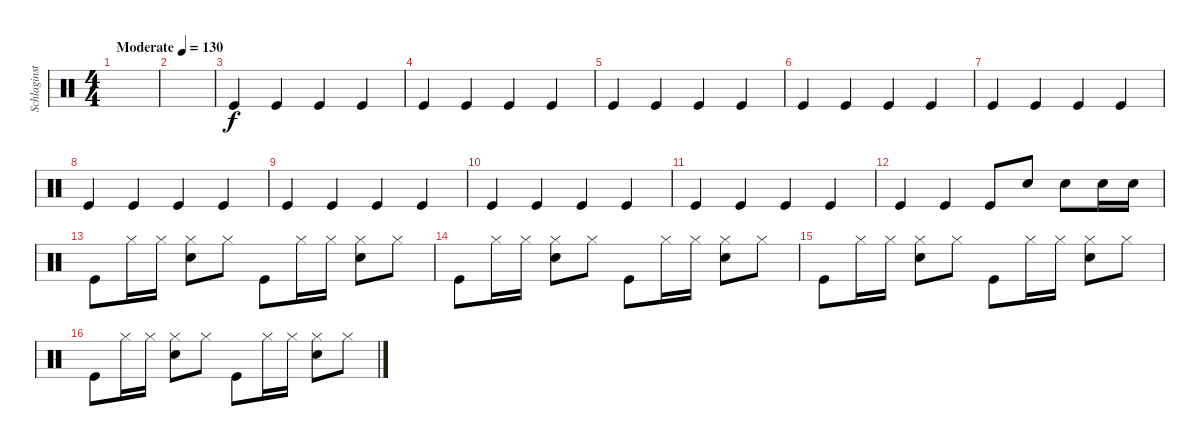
\track ("Schlaginstrumente - Auswahl" "Schlaginst") {instrument percussion}
\staff {score}
\articulation defaults
\ts (4 4)
\tempo (130 "Moderate")
\clef neutral
\ks c
|
|
"Kick (hit)".4 "Kick (hit)".4 "Kick (hit)".4 "Kick (hit)".4 |
"Kick (hit)".4 "Kick (hit)".4 "Kick (hit)".4 "Kick (hit)".4 |
"Kick (hit)".4 "Kick (hit)".4 "Kick (hit)".4 "Kick (hit)".4 |
"Kick (hit)".4 "Kick (hit)".4 "Kick (hit)".4 "Kick (hit)".4 |
"Kick (hit)".4 "Kick (hit)".4 "Kick (hit)".4 "Kick (hit)".4 |
"Kick (hit)".4 "Kick (hit)".4 "Kick (hit)".4 "Kick (hit)".4 |
"Kick (hit)".4 "Kick (hit)".4 "Kick (hit)".4 "Kick (hit)".4 |
"Kick (hit)".4 "Kick (hit)".4 "Kick (hit)".4 "Kick (hit)".4 |
"Kick (hit)".4 "Kick (hit)".4 "Kick (hit)".4 "Kick (hit)".4 |
"Kick (hit)".4 "Kick (hit)".4 "Kick (hit)".8 "Snare (hit) 2".8 "Snare (hit) 2".8 "Snare (hit) 2".16 "Snare (hit) 2".16 |
"Kick (hit)".8 "Hi-Hat (closed)".16 "Hi-Hat (closed)".16 ("Snare (hit) 2" "Hi-Hat (closed)").8 "Hi-Hat (closed)".8 "Kick (hit)".8 "Hi-Hat (closed)".16 "Hi-Hat (closed)".16 ("Snare (hit) 2" "Hi-Hat (closed)").8 "Hi-Hat (closed)".8 |
"Kick (hit)".8 "Hi-Hat (closed)".16 "Hi-Hat (closed)".16 ("Snare (hit) 2" "Hi-Hat (closed)").8 "Hi-Hat (closed)".8 "Kick (hit)".8 "Hi-Hat (closed)".16 "Hi-Hat (closed)".16 ("Snare (hit) 2" "Hi-Hat (closed)").8 "Hi-Hat (closed)".8 |
"Kick (hit)".8 "Hi-Hat (closed)".16 "Hi-Hat (closed)".16 ("Snare (hit) 2" "Hi-Hat (closed)").8 "Hi-Hat (closed)".8 "Kick (hit)".8 "Hi-Hat (closed)".16 "Hi-Hat (closed)".16 ("Snare (hit) 2" "Hi-Hat (closed)").8 "Hi-Hat (closed)".8 |
"Kick (hit)".8 "Hi-Hat (closed)".16 "Hi-Hat (closed)".16 ("Snare (hit) 2" "Hi-Hat (closed)").8 "Hi-Hat (closed)".8 "Kick (hit)".8 "Hi-Hat (closed)".16 "Hi-Hat (closed)".16 ("Snare (hit) 2" "Hi-Hat (closed)").8 "Hi-Hat (closed)".8
